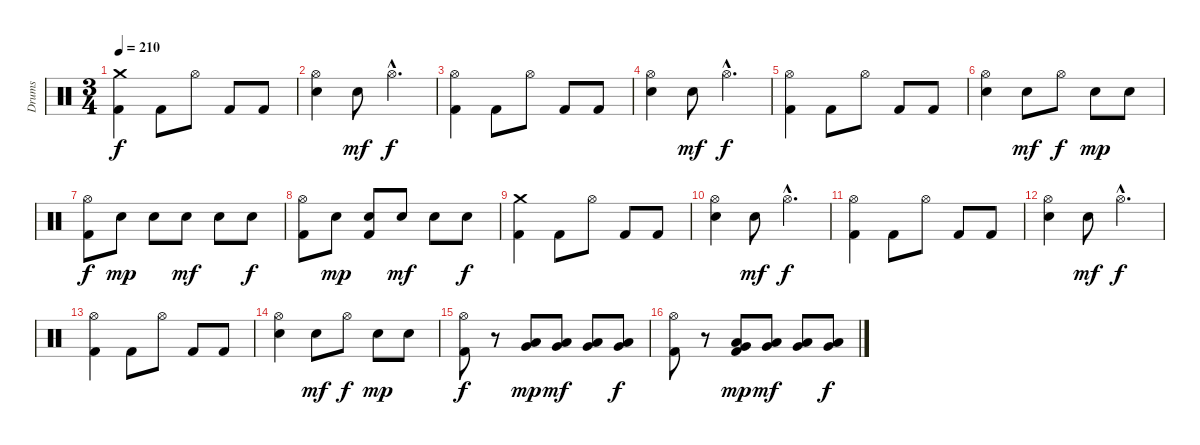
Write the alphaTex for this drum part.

\track ("Drums" "Drums") {instrument percussion}
\staff {score}
\articulation defaults
\ts (3 4)
\tempo 210
\clef neutral
\ks c
("Crash medium (hit)" "Kick (hit) 2").4{dy f} "Kick (hit) 2".8 "Hi-Hat (open)".8 "Kick (hit) 2".8 "Kick (hit) 2".8 |
("Hi-Hat (open)" "Electric Snare (hit)").4 "Electric Snare (hit)".8{dy mf} "Hi-Hat (open)"{hac}.4{d dy f} |
("Hi-Hat (open)" "Kick (hit) 2").4 "Kick (hit) 2".8 "Hi-Hat (open)".8 "Kick (hit) 2".8 "Kick (hit) 2".8 |
("Hi-Hat (open)" "Electric Snare (hit)").4 "Electric Snare (hit)".8{dy mf} "Hi-Hat (open)"{hac}.4{d dy f} |
("Hi-Hat (open)" "Kick (hit) 2").4 "Kick (hit) 2".8 "Hi-Hat (open)".8 "Kick (hit) 2".8 "Kick (hit) 2".8 |
("Hi-Hat (open)" "Electric Snare (hit)").4 "Electric Snare (hit)".8{dy mf} "Hi-Hat (open)".8{dy f} "Electric Snare (hit)".8{dy mp} "Electric Snare (hit)".8 |
("Hi-Hat (open)" "Kick (hit) 2").8{dy f} "Electric Snare (hit)".8{dy mp} "Electric Snare (hit)".8 "Electric Snare (hit)".8{dy mf} "Electric Snare (hit)".8 "Electric Snare (hit)".8{dy f} |
("Hi-Hat (open)" "Kick (hit) 2").8 "Electric Snare (hit)".8{dy mp} ("Electric Snare (hit)" "Kick (hit) 2").8 "Electric Snare (hit)".8{dy mf} "Electric Snare (hit)".8 "Electric Snare (hit)".8{dy f} |
("Crash medium (hit)" "Kick (hit) 2").4 "Kick (hit) 2".8 "Hi-Hat (open)".8 "Kick (hit) 2".8 "Kick (hit) 2".8 |
("Hi-Hat (open)" "Electric Snare (hit)").4 "Electric Snare (hit)".8{dy mf} "Hi-Hat (open)"{hac}.4{d dy f} |
("Hi-Hat (open)" "Kick (hit) 2").4 "Kick (hit) 2".8 "Hi-Hat (open)".8 "Kick (hit) 2".8 "Kick (hit) 2".8 |
("Hi-Hat (open)" "Electric Snare (hit)").4 "Electric Snare (hit)".8{dy mf} "Hi-Hat (open)"{hac}.4{d dy f} |
("Hi-Hat (open)" "Kick (hit) 2").4 "Kick (hit) 2".8 "Hi-Hat (open)".8 "Kick (hit) 2".8 "Kick (hit) 2".8 |
("Hi-Hat (open)" "Electric Snare (hit)").4 "Electric Snare (hit)".8{dy mf} "Hi-Hat (open)".8{dy f} "Electric Snare (hit)".8{dy mp} "Electric Snare (hit)".8 |
("Hi-Hat (open)" "Kick (hit) 2").8{dy f} r.8 ("Low Tom (hit)" "Very Low Tom (hit)").8{dy mp} ("Low Tom (hit)" "Very Low Tom (hit)").8{dy mf} ("Low Tom (hit)" "Very Low Tom (hit)").8 ("Low Tom (hit)" "Very Low Tom (hit)").8{dy f} |
("Hi-Hat (open)" "Kick (hit) 2").8 r.8 ("Low Tom (hit)" "Very Low Tom (hit)" "Kick (hit) 2").8{dy mp} ("Low Tom (hit)" "Very Low Tom (hit)").8{dy mf} ("Low Tom (hit)" "Very Low Tom (hit)").8 ("Low Tom (hit)" "Very Low Tom (hit)").8{dy f}
